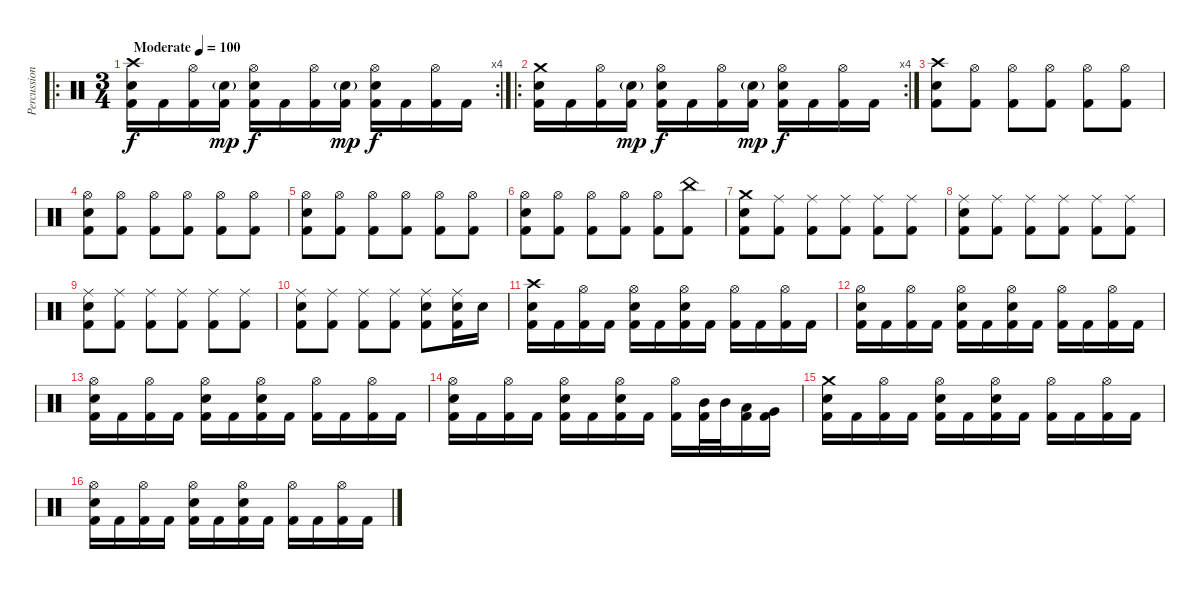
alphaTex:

\track ("Percussion" "Percussion") {instrument percussion}
\staff {score}
\articulation defaults
\ro
\rc 4
\ts (3 4)
\tempo (100 "Moderate")
\clef neutral
\ks c
("Crash high (hit)" "Snare (hit) 2" "Kick (hit) 2").16{dy f} "Kick (hit) 2".16 ("Hi-Hat (open)" "Kick (hit) 2").16 ("Snare (hit) 2"{g} "Kick (hit) 2").16{dy mp} ("Hi-Hat (open)" "Snare (hit) 2" "Kick (hit) 2").16{dy f} "Kick (hit) 2".16 ("Hi-Hat (open)" "Kick (hit) 2").16 ("Snare (hit) 2"{g} "Kick (hit) 2").16{dy mp} ("Hi-Hat (open)" "Snare (hit) 2" "Kick (hit) 2").16{dy f} "Kick (hit) 2".16 ("Hi-Hat (open)" "Kick (hit) 2").16 "Kick (hit) 2".16 |
\ro
\rc 4
("Crash medium (hit)" "Snare (hit) 2" "Kick (hit) 2").16 "Kick (hit) 2".16 ("Hi-Hat (open)" "Kick (hit) 2").16 ("Snare (hit) 2"{g} "Kick (hit) 2").16{dy mp} ("Hi-Hat (open)" "Snare (hit) 2" "Kick (hit) 2").16{dy f} "Kick (hit) 2".16 ("Hi-Hat (open)" "Kick (hit) 2").16 ("Snare (hit) 2"{g} "Kick (hit) 2").16{dy mp} ("Hi-Hat (open)" "Snare (hit) 2" "Kick (hit) 2").16{dy f} "Kick (hit) 2".16 ("Hi-Hat (open)" "Kick (hit) 2").16 "Kick (hit) 2".16 |
("Crash high (hit)" "Snare (hit) 2" "Kick (hit) 2").8 ("Hi-Hat (open)" "Kick (hit) 2").8 ("Hi-Hat (open)" "Kick (hit) 2").8 ("Hi-Hat (open)" "Kick (hit) 2").8 ("Hi-Hat (open)" "Kick (hit) 2").8 ("Hi-Hat (open)" "Kick (hit) 2").8 |
("Hi-Hat (open)" "Snare (hit) 2" "Kick (hit) 2").8 ("Hi-Hat (open)" "Kick (hit) 2").8 ("Hi-Hat (open)" "Kick (hit) 2").8 ("Hi-Hat (open)" "Kick (hit) 2").8 ("Hi-Hat (open)" "Kick (hit) 2").8 ("Hi-Hat (open)" "Kick (hit) 2").8 |
("Hi-Hat (open)" "Snare (hit) 2" "Kick (hit) 2").8 ("Hi-Hat (open)" "Kick (hit) 2").8 ("Hi-Hat (open)" "Kick (hit) 2").8 ("Hi-Hat (open)" "Kick (hit) 2").8 ("Hi-Hat (open)" "Kick (hit) 2").8 ("Hi-Hat (open)" "Kick (hit) 2").8 |
("Hi-Hat (open)" "Snare (hit) 2" "Kick (hit) 2").8 ("Hi-Hat (open)" "Kick (hit) 2").8 ("Hi-Hat (open)" "Kick (hit) 2").8 ("Hi-Hat (open)" "Kick (hit) 2").8 ("Hi-Hat (open)" "Kick (hit) 2").8 ("China (hit)" "Kick (hit) 2").8 |
("Crash medium (hit)" "Snare (hit) 2" "Kick (hit) 2").8 ("Ride (middle)" "Kick (hit) 2").8 ("Ride (middle)" "Kick (hit) 2").8 ("Ride (middle)" "Kick (hit) 2").8 ("Ride (middle)" "Kick (hit) 2").8 ("Ride (middle)" "Kick (hit) 2").8 |
("Ride (middle)" "Snare (hit) 2" "Kick (hit) 2").8 ("Ride (middle)" "Kick (hit) 2").8 ("Ride (middle)" "Kick (hit) 2").8 ("Ride (middle)" "Kick (hit) 2").8 ("Ride (middle)" "Kick (hit) 2").8 ("Ride (middle)" "Kick (hit) 2").8 |
("Ride (middle)" "Snare (hit) 2" "Kick (hit) 2").8 ("Ride (middle)" "Kick (hit) 2").8 ("Ride (middle)" "Kick (hit) 2").8 ("Ride (middle)" "Kick (hit) 2").8 ("Ride (middle)" "Kick (hit) 2").8 ("Ride (middle)" "Kick (hit) 2").8 |
("Ride (middle)" "Snare (hit) 2" "Kick (hit) 2").8 ("Ride (middle)" "Kick (hit) 2").8 ("Ride (middle)" "Kick (hit) 2").8 ("Ride (middle)" "Kick (hit) 2").8 ("Ride (middle)" "Snare (hit) 2" "Kick (hit) 2").8 ("Ride (middle)" "Snare (hit) 2" "Kick (hit) 2").16 "Snare (hit) 2".16 |
("Crash high (hit)" "Snare (hit) 2" "Kick (hit) 2").16 "Kick (hit) 2".16 ("Hi-Hat (open)" "Kick (hit) 2").16 "Kick (hit) 2".16 ("Hi-Hat (open)" "Snare (hit) 2" "Kick (hit) 2").16 "Kick (hit) 2".16 ("Hi-Hat (open)" "Snare (hit) 2" "Kick (hit) 2").16 "Kick (hit) 2".16 ("Hi-Hat (open)" "Kick (hit) 2").16 "Kick (hit) 2".16 ("Hi-Hat (open)" "Kick (hit) 2").16 "Kick (hit) 2".16 |
("Hi-Hat (open)" "Snare (hit) 2" "Kick (hit) 2").16 "Kick (hit) 2".16 ("Hi-Hat (open)" "Kick (hit) 2").16 "Kick (hit) 2".16 ("Hi-Hat (open)" "Snare (hit) 2" "Kick (hit) 2").16 "Kick (hit) 2".16 ("Hi-Hat (open)" "Snare (hit) 2" "Kick (hit) 2").16 "Kick (hit) 2".16 ("Hi-Hat (open)" "Kick (hit) 2").16 "Kick (hit) 2".16 ("Hi-Hat (open)" "Kick (hit) 2").16 "Kick (hit) 2".16 |
("Hi-Hat (open)" "Snare (hit) 2" "Kick (hit) 2").16 "Kick (hit) 2".16 ("Hi-Hat (open)" "Kick (hit) 2").16 "Kick (hit) 2".16 ("Hi-Hat (open)" "Snare (hit) 2" "Kick (hit) 2").16 "Kick (hit) 2".16 ("Hi-Hat (open)" "Snare (hit) 2" "Kick (hit) 2").16 "Kick (hit) 2".16 ("Hi-Hat (open)" "Kick (hit) 2").16 "Kick (hit) 2".16 ("Hi-Hat (open)" "Kick (hit) 2").16 "Kick (hit) 2".16 |
("Hi-Hat (open)" "Snare (hit) 2" "Kick (hit) 2").16 "Kick (hit) 2".16 ("Hi-Hat (open)" "Kick (hit) 2").16 "Kick (hit) 2".16 ("Hi-Hat (open)" "Snare (hit) 2" "Kick (hit) 2").16 "Kick (hit) 2".16 ("Hi-Hat (open)" "Snare (hit) 2" "Kick (hit) 2").16 "Kick (hit) 2".16 ("Hi-Hat (open)" "Kick (hit) 2").16 ("Mid Tom (hit)" "Kick (hit) 2").32 "Mid Tom (hit)".32 ("Low Tom (hit)" "Kick (hit) 2").16 ("Very Low Tom (hit)" "Kick (hit) 2").16 |
("Crash medium (hit)" "Snare (hit) 2" "Kick (hit) 2").16 "Kick (hit) 2".16 ("Hi-Hat (open)" "Kick (hit) 2").16 "Kick (hit) 2".16 ("Hi-Hat (open)" "Snare (hit) 2" "Kick (hit) 2").16 "Kick (hit) 2".16 ("Hi-Hat (open)" "Snare (hit) 2" "Kick (hit) 2").16 "Kick (hit) 2".16 ("Hi-Hat (open)" "Kick (hit) 2").16 "Kick (hit) 2".16 ("Hi-Hat (open)" "Kick (hit) 2").16 "Kick (hit) 2".16 |
("Hi-Hat (open)" "Snare (hit) 2" "Kick (hit) 2").16 "Kick (hit) 2".16 ("Hi-Hat (open)" "Kick (hit) 2").16 "Kick (hit) 2".16 ("Hi-Hat (open)" "Snare (hit) 2" "Kick (hit) 2").16 "Kick (hit) 2".16 ("Hi-Hat (open)" "Snare (hit) 2" "Kick (hit) 2").16 "Kick (hit) 2".16 ("Hi-Hat (open)" "Kick (hit) 2").16 "Kick (hit) 2".16 ("Hi-Hat (open)" "Kick (hit) 2").16 "Kick (hit) 2".16
